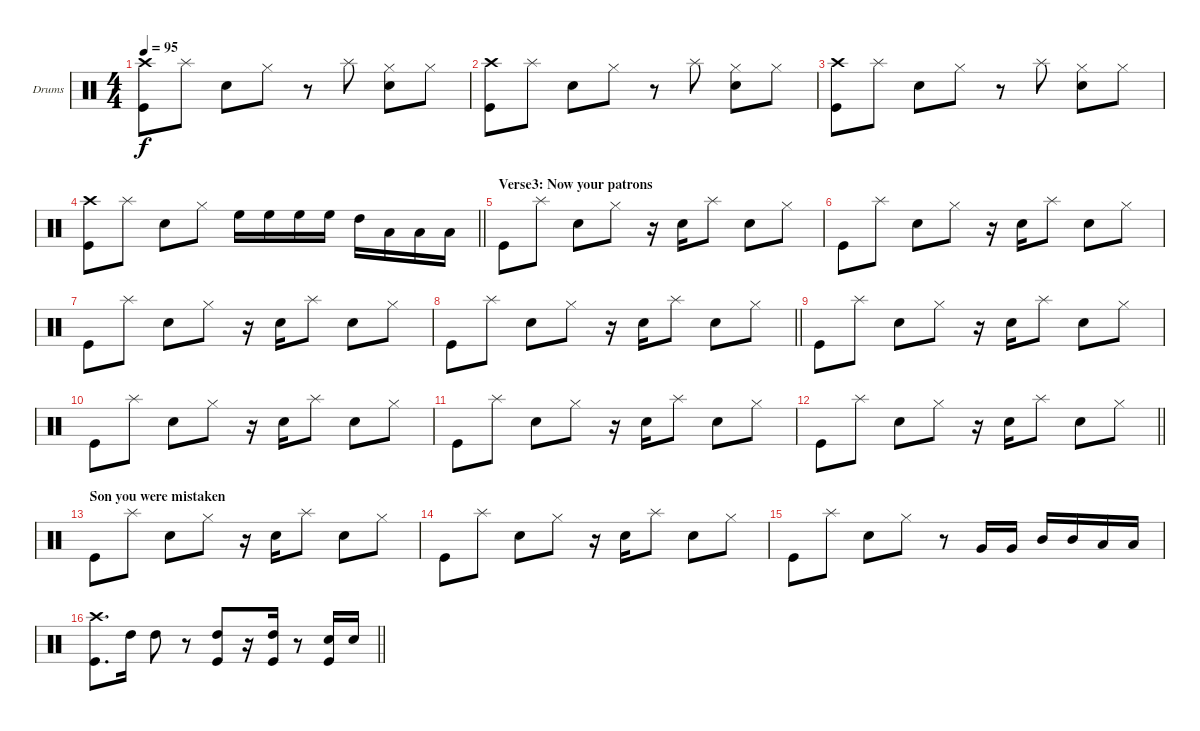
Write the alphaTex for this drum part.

\bracketExtendMode groupsimilarinstruments
\firstSystemTrackNameOrientation horizontal
\otherSystemsTrackNameOrientation horizontal
\track ("Drumkit" "Drums") {instrument percussion}
\staff {score}
\articulation defaults
\ts (4 4)
\tempo 95
\clef neutral
\ks c
("Crash high (hit)" "Kick (hit)").8{dy f} "Splash (hit)".8 "Snare (hit) 2".8 "Hi-Hat (closed)".8 r.8 "Splash (hit)".8 ("Hi-Hat (closed)" "Snare (hit) 2").8 "Hi-Hat (closed)".8 |
("Crash high (hit)" "Kick (hit)").8 "Splash (hit)".8 "Snare (hit) 2".8 "Hi-Hat (closed)".8 r.8 "Splash (hit)".8 ("Hi-Hat (closed)" "Snare (hit) 2").8 "Hi-Hat (closed)".8 |
("Crash high (hit)" "Kick (hit)").8 "Splash (hit)".8 "Snare (hit) 2".8 "Hi-Hat (closed)".8 r.8 "Splash (hit)".8 ("Hi-Hat (closed)" "Snare (hit) 2").8 "Hi-Hat (closed)".8 |
\barLineRight lightlight
("Crash high (hit)" "Kick (hit)").8 "Splash (hit)".8 "Snare (hit) 2".8 "Hi-Hat (closed)".8 "High Floor Tom (hit)".16 "High Floor Tom (hit)".16 "High Floor Tom (hit)".16 "High Floor Tom (hit)".16 "High Tom (hit)".16 "Low Tom (hit)".16 "Low Tom (hit)".16 "Low Tom (hit)".16 |
\section ("" "Verse3: Now your patrons")
"Kick (hit)".8 "Splash (hit)".8 "Snare (hit) 2".8 "Hi-Hat (closed)".8 r.16 "Snare (hit) 2".16 "Splash (hit)".8 "Snare (hit) 2".8 "Hi-Hat (closed)".8 |
"Kick (hit)".8 "Splash (hit)".8 "Snare (hit) 2".8 "Hi-Hat (closed)".8 r.16 "Snare (hit) 2".16 "Splash (hit)".8 "Snare (hit) 2".8 "Hi-Hat (closed)".8 |
"Kick (hit)".8 "Splash (hit)".8 "Snare (hit) 2".8 "Hi-Hat (closed)".8 r.16 "Snare (hit) 2".16 "Splash (hit)".8 "Snare (hit) 2".8 "Hi-Hat (closed)".8 |
\barLineRight lightlight "Kick (hit)".8 "Splash (hit)".8 "Snare (hit) 2".8 "Hi-Hat (closed)".8
r.16 "Snare (hit) 2".16 "Splash (hit)".8 "Snare (hit) 2".8 "Hi-Hat (closed)".8 |
"Kick (hit)".8 "Splash (hit)".8 "Snare (hit) 2".8 "Hi-Hat (closed)".8 r.16 "Snare (hit) 2".16 "Splash (hit)".8 "Snare (hit) 2".8 "Hi-Hat (closed)".8 |
"Kick (hit)".8 "Splash (hit)".8 "Snare (hit) 2".8 "Hi-Hat (closed)".8 r.16 "Snare (hit) 2".16 "Splash (hit)".8 "Snare (hit) 2".8 "Hi-Hat (closed)".8 |
"Kick (hit)".8 "Splash (hit)".8 "Snare (hit) 2".8 "Hi-Hat (closed)".8 r.16 "Snare (hit) 2".16 "Splash (hit)".8 "Snare (hit) 2".8 "Hi-Hat (closed)".8 |
\barLineRight lightlight "Kick (hit)".8 "Splash (hit)".8 "Snare (hit) 2".8 "Hi-Hat (closed)".8
r.16 "Snare (hit) 2".16 "Splash (hit)".8 "Snare (hit) 2".8 "Hi-Hat (closed)".8 |
\section ("" "Son you were mistaken")
"Kick (hit)".8 "Splash (hit)".8 "Snare (hit) 2".8 "Hi-Hat (closed)".8 r.16 "Snare (hit) 2".16 "Splash (hit)".8 "Snare (hit) 2".8 "Hi-Hat (closed)".8 |
"Kick (hit)".8 "Splash (hit)".8 "Snare (hit) 2".8 "Hi-Hat (closed)".8 r.16 "Snare (hit) 2".16 "Splash (hit)".8 "Snare (hit) 2".8 "Hi-Hat (closed)".8 |
"Kick (hit)".8 "Splash (hit)".8 "Snare (hit) 2".8 "Hi-Hat (closed)".8 r.8 "Very Low Tom (hit)".16 "Very Low Tom (hit)".16 "Mid Tom (hit)".16 "Mid Tom (hit)".16 "Low Tom (hit)".16 "Low Tom (hit)".16 |
\barLineRight lightlight
("Crash high (hit)" "Kick (hit)").8{d} "High Tom (hit)".16 "High Tom (hit)".8 r.8 ("High Tom (hit)" "Kick (hit)").8 r.16 ("High Tom (hit)" "Kick (hit)").16 r.8 ("Snare (hit) 2" "Kick (hit)").16 "Snare (hit) 2".16
